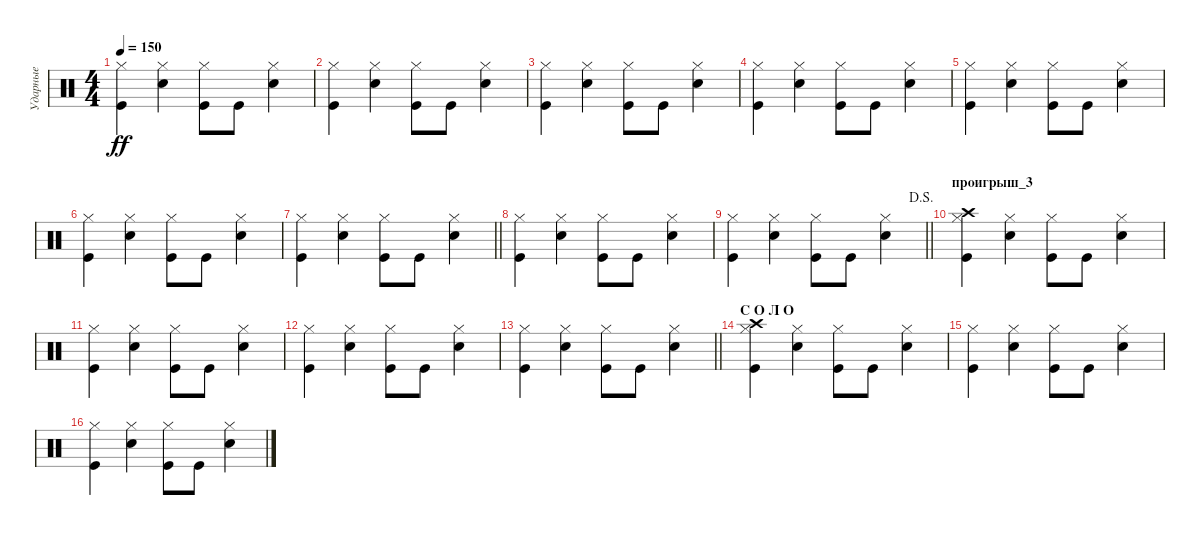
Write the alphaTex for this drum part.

\track ("Ударные" "Ударные") {instrument percussion}
\staff {score}
\articulation defaults
\ts (4 4)
\tempo 150
\clef neutral
\ks c
("Kick (hit)" "Hi-Hat (closed)").4{dy ff} ("Snare (hit) 2" "Hi-Hat (closed)").4 ("Kick (hit)" "Hi-Hat (closed)").8 "Kick (hit)".8 ("Snare (hit) 2" "Hi-Hat (closed)").4 |
("Kick (hit)" "Hi-Hat (closed)").4 ("Snare (hit) 2" "Hi-Hat (closed)").4 ("Kick (hit)" "Hi-Hat (closed)").8 "Kick (hit)".8 ("Snare (hit) 2" "Hi-Hat (closed)").4 |
("Kick (hit)" "Hi-Hat (closed)").4 ("Snare (hit) 2" "Hi-Hat (closed)").4 ("Kick (hit)" "Hi-Hat (closed)").8 "Kick (hit)".8 ("Snare (hit) 2" "Hi-Hat (closed)").4 |
("Kick (hit)" "Hi-Hat (closed)").4 ("Snare (hit) 2" "Hi-Hat (closed)").4 ("Kick (hit)" "Hi-Hat (closed)").8 "Kick (hit)".8 ("Snare (hit) 2" "Hi-Hat (closed)").4 |
("Kick (hit)" "Hi-Hat (closed)").4 ("Snare (hit) 2" "Hi-Hat (closed)").4 ("Kick (hit)" "Hi-Hat (closed)").8 "Kick (hit)".8 ("Snare (hit) 2" "Hi-Hat (closed)").4 |
("Kick (hit)" "Hi-Hat (closed)").4 ("Snare (hit) 2" "Hi-Hat (closed)").4 ("Kick (hit)" "Hi-Hat (closed)").8 "Kick (hit)".8 ("Snare (hit) 2" "Hi-Hat (closed)").4 |
\barLineRight lightlight
("Kick (hit)" "Hi-Hat (closed)").4 ("Snare (hit) 2" "Hi-Hat (closed)").4 ("Kick (hit)" "Hi-Hat (closed)").8 "Kick (hit)".8 ("Snare (hit) 2" "Hi-Hat (closed)").4 |
("Kick (hit)" "Hi-Hat (closed)").4 ("Snare (hit) 2" "Hi-Hat (closed)").4 ("Kick (hit)" "Hi-Hat (closed)").8 "Kick (hit)".8 ("Snare (hit) 2" "Hi-Hat (closed)").4 |
\jump dalsegno
\barLineRight lightlight
("Kick (hit)" "Hi-Hat (closed)").4 ("Snare (hit) 2" "Hi-Hat (closed)").4 ("Kick (hit)" "Hi-Hat (closed)").8 "Kick (hit)".8 ("Snare (hit) 2" "Hi-Hat (closed)").4 |
\section ("" "проигрыш_3")
("Kick (hit)" "Hi-Hat (closed)" "Crash high (hit)").4 ("Snare (hit) 2" "Hi-Hat (closed)").4 ("Kick (hit)" "Hi-Hat (closed)").8 "Kick (hit)".8 ("Snare (hit) 2" "Hi-Hat (closed)").4 |
("Kick (hit)" "Hi-Hat (closed)").4 ("Snare (hit) 2" "Hi-Hat (closed)").4 ("Kick (hit)" "Hi-Hat (closed)").8 "Kick (hit)".8 ("Snare (hit) 2" "Hi-Hat (closed)").4 |
("Kick (hit)" "Hi-Hat (closed)").4 ("Snare (hit) 2" "Hi-Hat (closed)").4 ("Kick (hit)" "Hi-Hat (closed)").8 "Kick (hit)".8 ("Snare (hit) 2" "Hi-Hat (closed)").4 |
\barLineRight lightlight
("Kick (hit)" "Hi-Hat (closed)").4 ("Snare (hit) 2" "Hi-Hat (closed)").4 ("Kick (hit)" "Hi-Hat (closed)").8 "Kick (hit)".8 ("Snare (hit) 2" "Hi-Hat (closed)").4 |
\section ("" "С О Л О")
("Kick (hit)" "Hi-Hat (closed)" "Crash high (hit)").4 ("Snare (hit) 2" "Hi-Hat (closed)").4 ("Kick (hit)" "Hi-Hat (closed)").8 "Kick (hit)".8 ("Snare (hit) 2" "Hi-Hat (closed)").4 |
("Kick (hit)" "Hi-Hat (closed)").4 ("Snare (hit) 2" "Hi-Hat (closed)").4 ("Kick (hit)" "Hi-Hat (closed)").8 "Kick (hit)".8 ("Snare (hit) 2" "Hi-Hat (closed)").4 |
("Kick (hit)" "Hi-Hat (closed)").4 ("Snare (hit) 2" "Hi-Hat (closed)").4 ("Kick (hit)" "Hi-Hat (closed)").8 "Kick (hit)".8 ("Snare (hit) 2" "Hi-Hat (closed)").4
